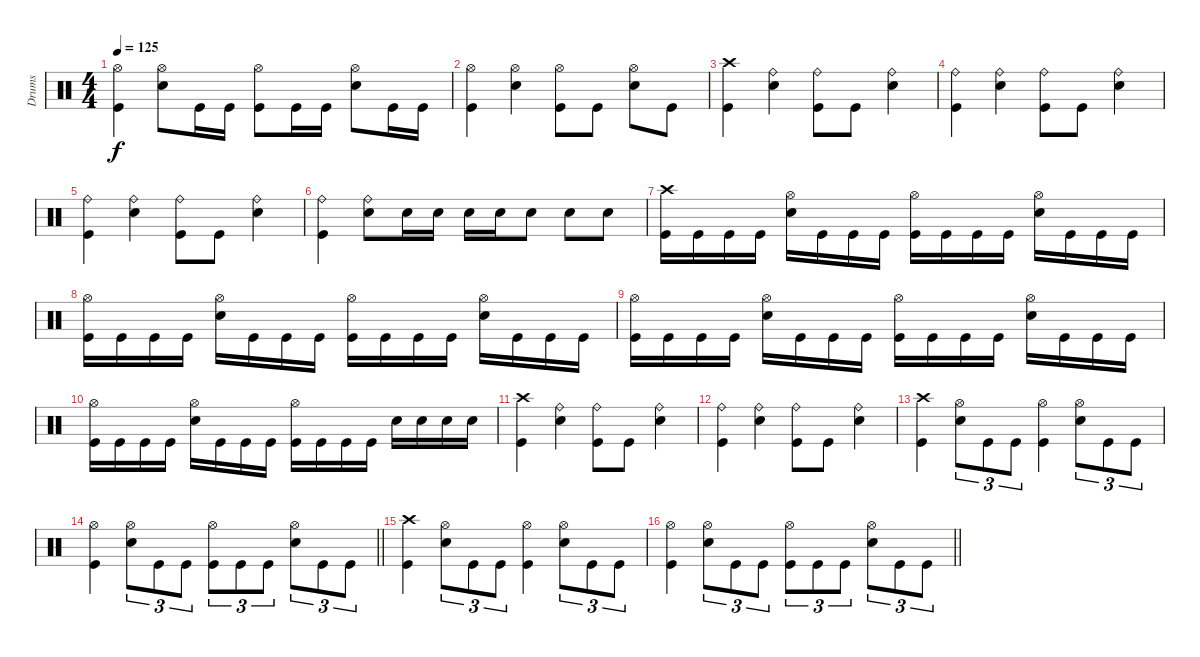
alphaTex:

\track ("Drums" "Drums") {instrument percussion}
\staff {score}
\articulation defaults
\ts (4 4)
\tempo 125
\clef neutral
\ks c
("Hi-Hat (open)" "Kick (hit)").4{dy f} ("Hi-Hat (open)" "Electric Snare (hit)").8 "Kick (hit)".16 "Kick (hit)".16 ("Hi-Hat (open)" "Kick (hit)").8 "Kick (hit)".16 "Kick (hit)".16 ("Hi-Hat (open)" "Electric Snare (hit)").8 "Kick (hit)".16 "Kick (hit)".16 |
("Hi-Hat (open)" "Kick (hit)").4 ("Hi-Hat (open)" "Electric Snare (hit)").4 ("Hi-Hat (open)" "Kick (hit)").8 "Kick (hit)".8 ("Hi-Hat (open)" "Electric Snare (hit)").8 "Kick (hit)".8 |
("Crash high (hit)" "Kick (hit)").4 ("Ride (bell)" "Electric Snare (hit)").4 ("Ride (bell)" "Kick (hit)").8 "Kick (hit)".8 ("Ride (bell)" "Electric Snare (hit)").4 |
("Ride (bell)" "Kick (hit)").4 ("Ride (bell)" "Electric Snare (hit)").4 ("Ride (bell)" "Kick (hit)").8 "Kick (hit)".8 ("Ride (bell)" "Electric Snare (hit)").4 |
("Ride (bell)" "Kick (hit)").4 ("Ride (bell)" "Electric Snare (hit)").4 ("Ride (bell)" "Kick (hit)").8 "Kick (hit)".8 ("Ride (bell)" "Electric Snare (hit)").4 |
("Ride (bell)" "Kick (hit)").4 ("Ride (bell)" "Electric Snare (hit)").8 "Electric Snare (hit)".16 "Electric Snare (hit)".16 "Electric Snare (hit)".16 "Electric Snare (hit)".16 "Electric Snare (hit)".8 "Electric Snare (hit)".8 "Electric Snare (hit)".8 |
("Crash high (hit)" "Kick (hit)").16 "Kick (hit)".16 "Kick (hit)".16 "Kick (hit)".16 ("Hi-Hat (open)" "Electric Snare (hit)").16 "Kick (hit)".16 "Kick (hit)".16 "Kick (hit)".16 ("Hi-Hat (open)" "Kick (hit)").16 "Kick (hit)".16 "Kick (hit)".16 "Kick (hit)".16 ("Hi-Hat (open)" "Electric Snare (hit)").16 "Kick (hit)".16 "Kick (hit)".16 "Kick (hit)".16 |
("Hi-Hat (open)" "Kick (hit)").16 "Kick (hit)".16 "Kick (hit)".16 "Kick (hit)".16 ("Hi-Hat (open)" "Electric Snare (hit)").16 "Kick (hit)".16 "Kick (hit)".16 "Kick (hit)".16 ("Hi-Hat (open)" "Kick (hit)").16 "Kick (hit)".16 "Kick (hit)".16 "Kick (hit)".16 ("Hi-Hat (open)" "Electric Snare (hit)").16 "Kick (hit)".16 "Kick (hit)".16 "Kick (hit)".16 |
("Hi-Hat (open)" "Kick (hit)").16 "Kick (hit)".16 "Kick (hit)".16 "Kick (hit)".16 ("Hi-Hat (open)" "Electric Snare (hit)").16 "Kick (hit)".16 "Kick (hit)".16 "Kick (hit)".16 ("Hi-Hat (open)" "Kick (hit)").16 "Kick (hit)".16 "Kick (hit)".16 "Kick (hit)".16 ("Hi-Hat (open)" "Electric Snare (hit)").16 "Kick (hit)".16 "Kick (hit)".16 "Kick (hit)".16 |
("Hi-Hat (open)" "Kick (hit)").16 "Kick (hit)".16 "Kick (hit)".16 "Kick (hit)".16 ("Hi-Hat (open)" "Electric Snare (hit)").16 "Kick (hit)".16 "Kick (hit)".16 "Kick (hit)".16 ("Hi-Hat (open)" "Kick (hit)").16 "Kick (hit)".16 "Kick (hit)".16 "Kick (hit)".16 "Electric Snare (hit)".16 "Electric Snare (hit)".16 "Electric Snare (hit)".16 "Electric Snare (hit)".16 |
("Crash high (hit)" "Kick (hit)").4 ("Ride (bell)" "Electric Snare (hit)").4 ("Ride (bell)" "Kick (hit)").8 "Kick (hit)".8 ("Ride (bell)" "Electric Snare (hit)").4 |
("Ride (bell)" "Kick (hit)").4 ("Ride (bell)" "Electric Snare (hit)").4 ("Ride (bell)" "Kick (hit)").8 "Kick (hit)".8 ("Ride (bell)" "Electric Snare (hit)").4 |
("Crash high (hit)" "Kick (hit)").4 ("Hi-Hat (open)" "Electric Snare (hit)").8{tu (3 2)} "Kick (hit)".8{tu (3 2)} "Kick (hit)".8{tu (3 2)} ("Hi-Hat (open)" "Kick (hit)").4 ("Hi-Hat (open)" "Electric Snare (hit)").8{tu (3 2)} "Kick (hit)".8{tu (3 2)} "Kick (hit)".8{tu (3 2)} |
\barLineRight lightlight
("Hi-Hat (open)" "Kick (hit)").4 ("Hi-Hat (open)" "Electric Snare (hit)").8{tu (3 2)} "Kick (hit)".8{tu (3 2)} "Kick (hit)".8{tu (3 2)} ("Hi-Hat (open)" "Kick (hit)").8{tu (3 2)} "Kick (hit)".8{tu (3 2)} "Kick (hit)".8{tu (3 2)} ("Hi-Hat (open)" "Electric Snare (hit)").8{tu (3 2)} "Kick (hit)".8{tu (3 2)} "Kick (hit)".8{tu (3 2)} |
("Crash high (hit)" "Kick (hit)").4 ("Hi-Hat (open)" "Electric Snare (hit)").8{tu (3 2)} "Kick (hit)".8{tu (3 2)} "Kick (hit)".8{tu (3 2)} ("Hi-Hat (open)" "Kick (hit)").4 ("Hi-Hat (open)" "Electric Snare (hit)").8{tu (3 2)} "Kick (hit)".8{tu (3 2)} "Kick (hit)".8{tu (3 2)} |
\barLineRight lightlight
("Hi-Hat (open)" "Kick (hit)").4 ("Hi-Hat (open)" "Electric Snare (hit)").8{tu (3 2)} "Kick (hit)".8{tu (3 2)} "Kick (hit)".8{tu (3 2)} ("Hi-Hat (open)" "Kick (hit)").8{tu (3 2)} "Kick (hit)".8{tu (3 2)} "Kick (hit)".8{tu (3 2)} ("Hi-Hat (open)" "Electric Snare (hit)").8{tu (3 2)} "Kick (hit)".8{tu (3 2)} "Kick (hit)".8{tu (3 2)}
